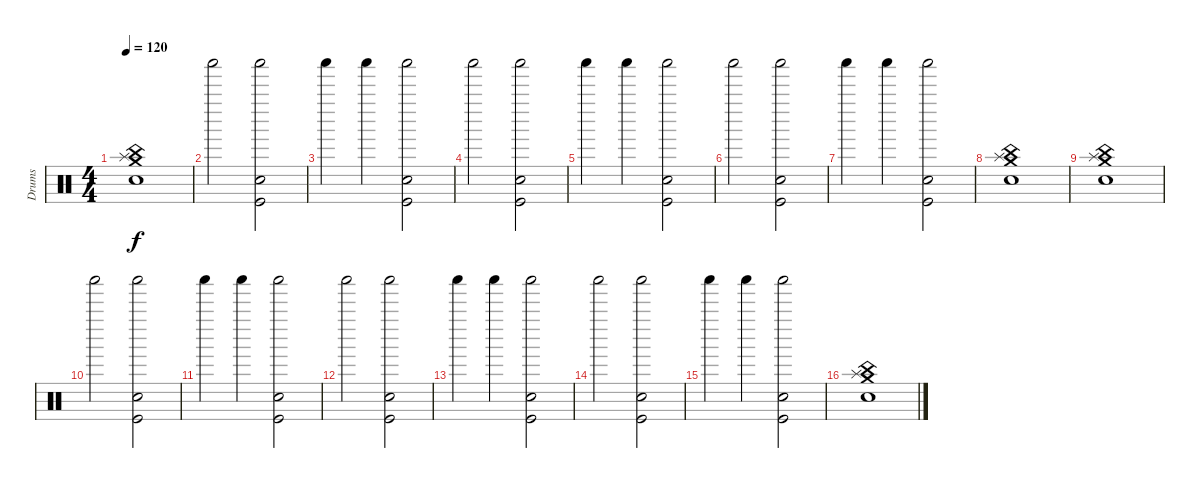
\track ("Drums" "Drums") {instrument percussion}
\staff {score}
\articulation defaults
\ts (4 4)
\tempo 120
\clef neutral
\ks c
("Electric Snare (hit)" "China (hit)" "Splash (hit)" "Crash medium (hit)").1{dy f} |
"Shaker (hit)".2 ("Shaker (hit)" "Snare (hit) 2" "Kick (hit)").2 |
"Shaker (hit)".4 "Shaker (hit)".4 ("Shaker (hit)" "Snare (hit) 2" "Kick (hit)").2 |
"Shaker (hit)".2 ("Shaker (hit)" "Snare (hit) 2" "Kick (hit)").2 |
"Shaker (hit)".4 "Shaker (hit)".4 ("Shaker (hit)" "Snare (hit) 2" "Kick (hit)").2 |
"Shaker (hit)".2 ("Shaker (hit)" "Snare (hit) 2" "Kick (hit)").2 |
"Shaker (hit)".4 "Shaker (hit)".4 ("Shaker (hit)" "Snare (hit) 2" "Kick (hit)").2 |
("Electric Snare (hit)" "China (hit)" "Splash (hit)" "Crash medium (hit)").1 |
("Electric Snare (hit)" "China (hit)" "Splash (hit)" "Crash medium (hit)").1 |
"Shaker (hit)".2 ("Shaker (hit)" "Snare (hit) 2" "Kick (hit)").2 |
"Shaker (hit)".4 "Shaker (hit)".4 ("Shaker (hit)" "Snare (hit) 2" "Kick (hit)").2 |
"Shaker (hit)".2 ("Shaker (hit)" "Snare (hit) 2" "Kick (hit)").2 |
"Shaker (hit)".4 "Shaker (hit)".4 ("Shaker (hit)" "Snare (hit) 2" "Kick (hit)").2 |
"Shaker (hit)".2 ("Shaker (hit)" "Snare (hit) 2" "Kick (hit)").2 |
"Shaker (hit)".4 "Shaker (hit)".4 ("Shaker (hit)" "Snare (hit) 2" "Kick (hit)").2 |
("Electric Snare (hit)" "China (hit)" "Splash (hit)" "Crash medium (hit)").1
